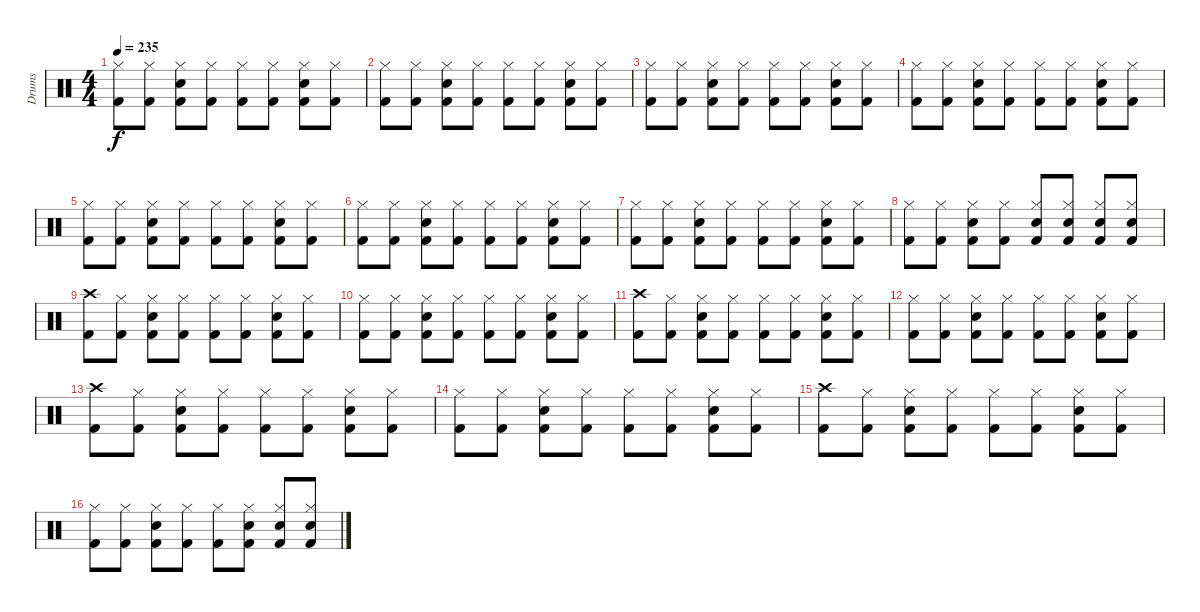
\track ("Drums" "Drums") {instrument percussion}
\staff {score}
\articulation defaults
\ts (4 4)
\tempo 235
\clef neutral
\ks c
("Kick (hit) 2" "Hi-Hat (closed)").8{dy f} ("Kick (hit) 2" "Hi-Hat (closed)").8 ("Kick (hit) 2" "Snare (hit) 2" "Hi-Hat (closed)").8 ("Kick (hit) 2" "Hi-Hat (closed)").8 ("Kick (hit) 2" "Hi-Hat (closed)").8 ("Kick (hit) 2" "Hi-Hat (closed)").8 ("Kick (hit) 2" "Hi-Hat (closed)" "Snare (hit) 2").8 ("Kick (hit) 2" "Hi-Hat (closed)").8 |
("Kick (hit) 2" "Hi-Hat (closed)").8 ("Kick (hit) 2" "Hi-Hat (closed)").8 ("Kick (hit) 2" "Snare (hit) 2" "Hi-Hat (closed)").8 ("Kick (hit) 2" "Hi-Hat (closed)").8 ("Kick (hit) 2" "Hi-Hat (closed)").8 ("Kick (hit) 2" "Hi-Hat (closed)").8 ("Kick (hit) 2" "Hi-Hat (closed)" "Snare (hit) 2").8 ("Kick (hit) 2" "Hi-Hat (closed)").8 |
("Kick (hit) 2" "Hi-Hat (closed)").8 ("Kick (hit) 2" "Hi-Hat (closed)").8 ("Kick (hit) 2" "Snare (hit) 2" "Hi-Hat (closed)").8 ("Kick (hit) 2" "Hi-Hat (closed)").8 ("Kick (hit) 2" "Hi-Hat (closed)").8 ("Kick (hit) 2" "Hi-Hat (closed)").8 ("Kick (hit) 2" "Hi-Hat (closed)" "Snare (hit) 2").8 ("Kick (hit) 2" "Hi-Hat (closed)").8 |
("Kick (hit) 2" "Hi-Hat (closed)").8 ("Kick (hit) 2" "Hi-Hat (closed)").8 ("Kick (hit) 2" "Snare (hit) 2" "Hi-Hat (closed)").8 ("Kick (hit) 2" "Hi-Hat (closed)").8 ("Kick (hit) 2" "Hi-Hat (closed)").8 ("Kick (hit) 2" "Hi-Hat (closed)").8 ("Kick (hit) 2" "Hi-Hat (closed)" "Snare (hit) 2").8 ("Kick (hit) 2" "Hi-Hat (closed)").8 |
("Kick (hit) 2" "Hi-Hat (closed)").8 ("Kick (hit) 2" "Hi-Hat (closed)").8 ("Kick (hit) 2" "Snare (hit) 2" "Hi-Hat (closed)").8 ("Kick (hit) 2" "Hi-Hat (closed)").8 ("Kick (hit) 2" "Hi-Hat (closed)").8 ("Kick (hit) 2" "Hi-Hat (closed)").8 ("Kick (hit) 2" "Hi-Hat (closed)" "Snare (hit) 2").8 ("Kick (hit) 2" "Hi-Hat (closed)").8 |
("Kick (hit) 2" "Hi-Hat (closed)").8 ("Kick (hit) 2" "Hi-Hat (closed)").8 ("Kick (hit) 2" "Snare (hit) 2" "Hi-Hat (closed)").8 ("Kick (hit) 2" "Hi-Hat (closed)").8 ("Kick (hit) 2" "Hi-Hat (closed)").8 ("Kick (hit) 2" "Hi-Hat (closed)").8 ("Kick (hit) 2" "Hi-Hat (closed)" "Snare (hit) 2").8 ("Kick (hit) 2" "Hi-Hat (closed)").8 |
("Kick (hit) 2" "Hi-Hat (closed)").8 ("Kick (hit) 2" "Hi-Hat (closed)").8 ("Kick (hit) 2" "Snare (hit) 2" "Hi-Hat (closed)").8 ("Kick (hit) 2" "Hi-Hat (closed)").8 ("Kick (hit) 2" "Hi-Hat (closed)").8 ("Kick (hit) 2" "Hi-Hat (closed)").8 ("Kick (hit) 2" "Hi-Hat (closed)" "Snare (hit) 2").8 ("Kick (hit) 2" "Hi-Hat (closed)").8 |
("Kick (hit) 2" "Hi-Hat (closed)").8 ("Kick (hit) 2" "Hi-Hat (closed)").8 ("Kick (hit) 2" "Snare (hit) 2" "Hi-Hat (closed)").8 ("Kick (hit) 2" "Hi-Hat (closed)").8 ("Kick (hit) 2" "Hi-Hat (closed)" "Snare (hit) 2").8 ("Kick (hit) 2" "Hi-Hat (closed)" "Snare (hit) 2").8 ("Kick (hit) 2" "Hi-Hat (closed)" "Snare (hit) 2").8 ("Kick (hit) 2" "Hi-Hat (closed)" "Snare (hit) 2").8 |
("Kick (hit) 2" "Crash high (hit)").8 ("Kick (hit) 2" "Hi-Hat (closed)").8 ("Kick (hit) 2" "Snare (hit) 2" "Hi-Hat (closed)").8 ("Kick (hit) 2" "Hi-Hat (closed)").8 ("Kick (hit) 2" "Hi-Hat (closed)").8 ("Kick (hit) 2" "Hi-Hat (closed)").8 ("Kick (hit) 2" "Hi-Hat (closed)" "Snare (hit) 2").8 ("Kick (hit) 2" "Hi-Hat (closed)").8 |
("Kick (hit) 2" "Hi-Hat (closed)").8 ("Kick (hit) 2" "Hi-Hat (closed)").8 ("Kick (hit) 2" "Snare (hit) 2" "Hi-Hat (closed)").8 ("Kick (hit) 2" "Hi-Hat (closed)").8 ("Kick (hit) 2" "Hi-Hat (closed)").8 ("Kick (hit) 2" "Hi-Hat (closed)").8 ("Kick (hit) 2" "Hi-Hat (closed)" "Snare (hit) 2").8 ("Kick (hit) 2" "Hi-Hat (closed)").8 |
("Kick (hit) 2" "Crash high (hit)").8 ("Kick (hit) 2" "Hi-Hat (closed)").8 ("Kick (hit) 2" "Snare (hit) 2" "Hi-Hat (closed)").8 ("Kick (hit) 2" "Hi-Hat (closed)").8 ("Kick (hit) 2" "Hi-Hat (closed)").8 ("Kick (hit) 2" "Hi-Hat (closed)").8 ("Kick (hit) 2" "Hi-Hat (closed)" "Snare (hit) 2").8 ("Kick (hit) 2" "Hi-Hat (closed)").8 |
("Kick (hit) 2" "Hi-Hat (closed)").8 ("Kick (hit) 2" "Hi-Hat (closed)").8 ("Kick (hit) 2" "Snare (hit) 2" "Hi-Hat (closed)").8 ("Kick (hit) 2" "Hi-Hat (closed)").8 ("Kick (hit) 2" "Hi-Hat (closed)").8 ("Kick (hit) 2" "Hi-Hat (closed)").8 ("Kick (hit) 2" "Hi-Hat (closed)" "Snare (hit) 2").8 ("Kick (hit) 2" "Hi-Hat (closed)").8 |
("Kick (hit) 2" "Crash high (hit)").8 ("Kick (hit) 2" "Hi-Hat (closed)").8 ("Kick (hit) 2" "Snare (hit) 2" "Hi-Hat (closed)").8 ("Kick (hit) 2" "Hi-Hat (closed)").8 ("Kick (hit) 2" "Hi-Hat (closed)").8 ("Kick (hit) 2" "Hi-Hat (closed)").8 ("Kick (hit) 2" "Hi-Hat (closed)" "Snare (hit) 2").8 ("Kick (hit) 2" "Hi-Hat (closed)").8 |
("Kick (hit) 2" "Hi-Hat (closed)").8 ("Kick (hit) 2" "Hi-Hat (closed)").8 ("Kick (hit) 2" "Snare (hit) 2" "Hi-Hat (closed)").8 ("Kick (hit) 2" "Hi-Hat (closed)").8 ("Kick (hit) 2" "Hi-Hat (closed)").8 ("Kick (hit) 2" "Hi-Hat (closed)").8 ("Kick (hit) 2" "Hi-Hat (closed)" "Snare (hit) 2").8 ("Kick (hit) 2" "Hi-Hat (closed)").8 |
("Kick (hit) 2" "Crash high (hit)").8 ("Kick (hit) 2" "Hi-Hat (closed)").8 ("Kick (hit) 2" "Snare (hit) 2" "Hi-Hat (closed)").8 ("Kick (hit) 2" "Hi-Hat (closed)").8 ("Kick (hit) 2" "Hi-Hat (closed)").8 ("Kick (hit) 2" "Hi-Hat (closed)").8 ("Kick (hit) 2" "Hi-Hat (closed)" "Snare (hit) 2").8 ("Kick (hit) 2" "Hi-Hat (closed)").8 |
("Kick (hit) 2" "Hi-Hat (closed)").8 ("Kick (hit) 2" "Hi-Hat (closed)").8 ("Kick (hit) 2" "Snare (hit) 2" "Hi-Hat (closed)").8 ("Kick (hit) 2" "Hi-Hat (closed)").8 ("Kick (hit) 2" "Hi-Hat (closed)").8 ("Kick (hit) 2" "Hi-Hat (closed)" "Snare (hit) 2").8 ("Kick (hit) 2" "Hi-Hat (closed)" "Snare (hit) 2").8 ("Kick (hit) 2" "Hi-Hat (closed)" "Snare (hit) 2").8
